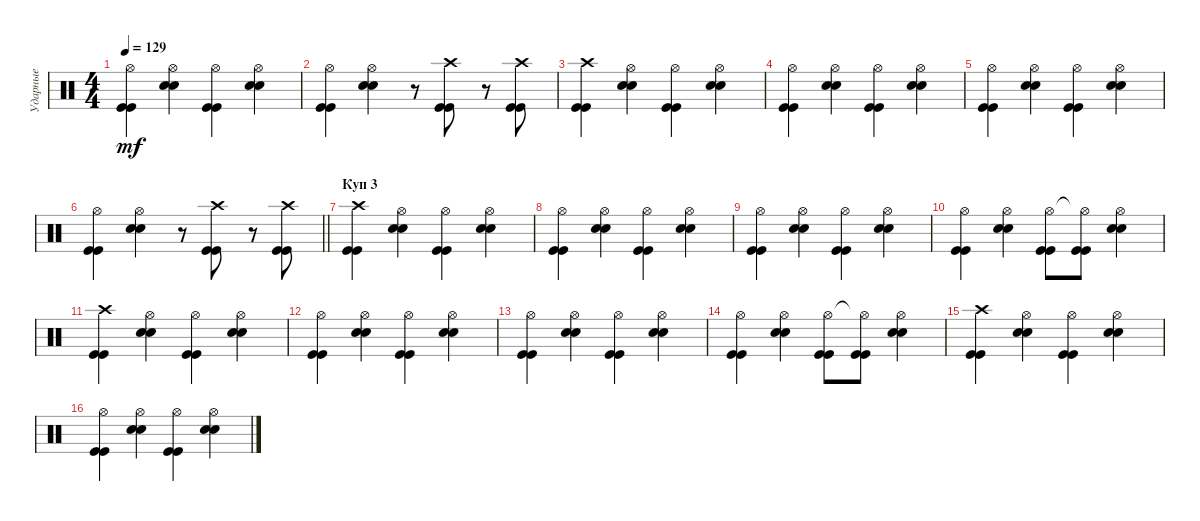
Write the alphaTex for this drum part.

\track ("Ударные" "Ударные") {instrument percussion}
\staff {score}
\articulation defaults
\ts (4 4)
\tempo 129
\clef neutral
\ks c
("Hi-Hat (open)" "Kick (hit)" "Kick (hit)").4{dy mf} ("Hi-Hat (open)" "Snare (hit) 2" "Snare (hit) 2").4 ("Hi-Hat (open)" "Kick (hit)" "Kick (hit)").4 ("Hi-Hat (open)" "Snare (hit) 2" "Snare (hit) 2").4 |
("Hi-Hat (open)" "Kick (hit)" "Kick (hit)").4 ("Hi-Hat (open)" "Snare (hit) 2" "Snare (hit) 2").4 r.8 ("Crash high (hit)" "Kick (hit)" "Kick (hit)").8 r.8 ("Crash high (hit)" "Kick (hit)" "Kick (hit)").8 |
("Crash high (hit)" "Kick (hit)" "Kick (hit)").4 ("Hi-Hat (open)" "Snare (hit) 2" "Snare (hit) 2").4 ("Hi-Hat (open)" "Kick (hit)" "Kick (hit)").4 ("Hi-Hat (open)" "Snare (hit) 2" "Snare (hit) 2").4 |
("Hi-Hat (open)" "Kick (hit)" "Kick (hit)").4 ("Hi-Hat (open)" "Snare (hit) 2" "Snare (hit) 2").4 ("Hi-Hat (open)" "Kick (hit)" "Kick (hit)").4 ("Hi-Hat (open)" "Snare (hit) 2" "Snare (hit) 2").4 |
("Hi-Hat (open)" "Kick (hit)" "Kick (hit)").4 ("Hi-Hat (open)" "Snare (hit) 2" "Snare (hit) 2").4 ("Hi-Hat (open)" "Kick (hit)" "Kick (hit)").4 ("Hi-Hat (open)" "Snare (hit) 2" "Snare (hit) 2").4 |
\barLineRight lightlight
("Hi-Hat (open)" "Kick (hit)" "Kick (hit)").4 ("Hi-Hat (open)" "Snare (hit) 2" "Snare (hit) 2").4 r.8 ("Crash high (hit)" "Kick (hit)" "Kick (hit)").8 r.8 ("Crash high (hit)" "Kick (hit)" "Kick (hit)").8 |
\section ("" "Куп 3")
("Crash high (hit)" "Kick (hit)" "Kick (hit)").4 ("Hi-Hat (open)" "Snare (hit) 2" "Snare (hit) 2").4 ("Hi-Hat (open)" "Kick (hit)" "Kick (hit)").4 ("Hi-Hat (open)" "Snare (hit) 2" "Snare (hit) 2").4 |
("Hi-Hat (open)" "Kick (hit)" "Kick (hit)").4 ("Hi-Hat (open)" "Snare (hit) 2" "Snare (hit) 2").4 ("Hi-Hat (open)" "Kick (hit)" "Kick (hit)").4 ("Hi-Hat (open)" "Snare (hit) 2" "Snare (hit) 2").4 |
("Hi-Hat (open)" "Kick (hit)" "Kick (hit)").4 ("Hi-Hat (open)" "Snare (hit) 2" "Snare (hit) 2").4 ("Hi-Hat (open)" "Kick (hit)" "Kick (hit)").4 ("Hi-Hat (open)" "Snare (hit) 2" "Snare (hit) 2").4 |
("Hi-Hat (open)" "Kick (hit)" "Kick (hit)").4 ("Hi-Hat (open)" "Snare (hit) 2" "Snare (hit) 2").4 ("Hi-Hat (open)" "Kick (hit)" "Kick (hit)").8 ("Hi-Hat (open)"{t} "Kick (hit)" "Kick (hit)").8 ("Hi-Hat (open)" "Snare (hit) 2" "Snare (hit) 2").4 |
("Crash high (hit)" "Kick (hit)" "Kick (hit)").4 ("Hi-Hat (open)" "Snare (hit) 2" "Snare (hit) 2").4 ("Hi-Hat (open)" "Kick (hit)" "Kick (hit)").4 ("Hi-Hat (open)" "Snare (hit) 2" "Snare (hit) 2").4 |
("Hi-Hat (open)" "Kick (hit)" "Kick (hit)").4 ("Hi-Hat (open)" "Snare (hit) 2" "Snare (hit) 2").4 ("Hi-Hat (open)" "Kick (hit)" "Kick (hit)").4 ("Hi-Hat (open)" "Snare (hit) 2" "Snare (hit) 2").4 |
("Hi-Hat (open)" "Kick (hit)" "Kick (hit)").4 ("Hi-Hat (open)" "Snare (hit) 2" "Snare (hit) 2").4 ("Hi-Hat (open)" "Kick (hit)" "Kick (hit)").4 ("Hi-Hat (open)" "Snare (hit) 2" "Snare (hit) 2").4 |
("Hi-Hat (open)" "Kick (hit)" "Kick (hit)").4 ("Hi-Hat (open)" "Snare (hit) 2" "Snare (hit) 2").4 ("Hi-Hat (open)" "Kick (hit)" "Kick (hit)").8 ("Hi-Hat (open)"{t} "Kick (hit)" "Kick (hit)").8 ("Hi-Hat (open)" "Snare (hit) 2" "Snare (hit) 2").4 |
("Crash high (hit)" "Kick (hit)" "Kick (hit)").4 ("Hi-Hat (open)" "Snare (hit) 2" "Snare (hit) 2").4 ("Hi-Hat (open)" "Kick (hit)" "Kick (hit)").4 ("Hi-Hat (open)" "Snare (hit) 2" "Snare (hit) 2").4 |
("Hi-Hat (open)" "Kick (hit)" "Kick (hit)").4 ("Hi-Hat (open)" "Snare (hit) 2" "Snare (hit) 2").4 ("Hi-Hat (open)" "Kick (hit)" "Kick (hit)").4 ("Hi-Hat (open)" "Snare (hit) 2" "Snare (hit) 2").4
